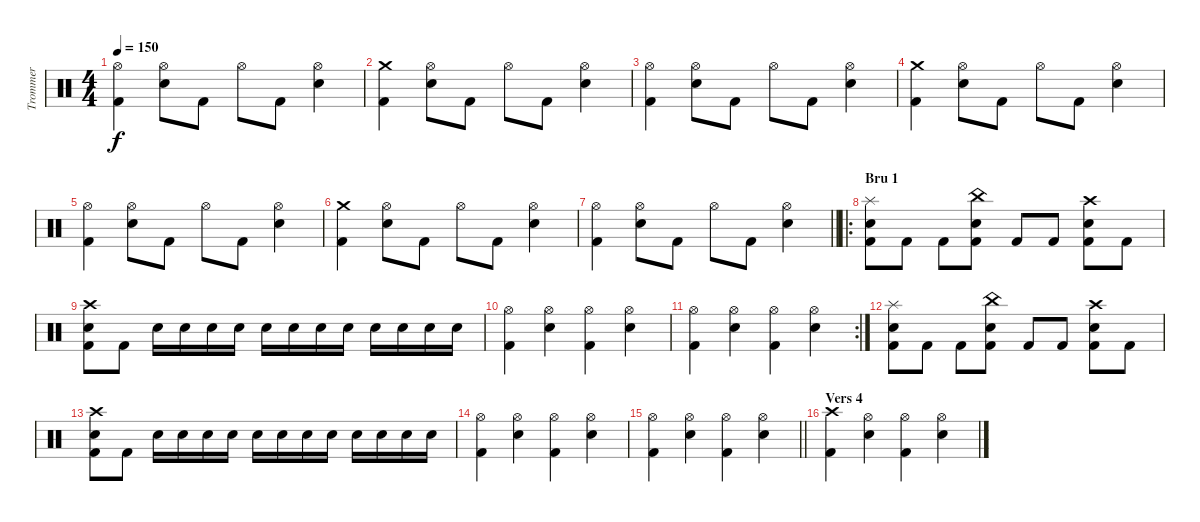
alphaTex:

\track ("Trommer" "Trommer") {instrument percussion}
\staff {score}
\articulation defaults
\ts (4 4)
\tempo 150
\clef neutral
\ks c
("Hi-Hat (open)" "Kick (hit) 2").4{dy f} ("Hi-Hat (open)" "Snare (hit) 2").8 "Kick (hit) 2".8 "Hi-Hat (open)".8 "Kick (hit) 2".8 ("Hi-Hat (open)" "Snare (hit) 2").4 |
("Crash medium (hit)" "Kick (hit) 2").4 ("Hi-Hat (open)" "Snare (hit) 2").8 "Kick (hit) 2".8 "Hi-Hat (open)".8 "Kick (hit) 2".8 ("Hi-Hat (open)" "Snare (hit) 2").4 |
("Hi-Hat (open)" "Kick (hit) 2").4 ("Hi-Hat (open)" "Snare (hit) 2").8 "Kick (hit) 2".8 "Hi-Hat (open)".8 "Kick (hit) 2".8 ("Hi-Hat (open)" "Snare (hit) 2").4 |
("Crash medium (hit)" "Kick (hit) 2").4 ("Hi-Hat (open)" "Snare (hit) 2").8 "Kick (hit) 2".8 "Hi-Hat (open)".8 "Kick (hit) 2".8 ("Hi-Hat (open)" "Snare (hit) 2").4 |
("Hi-Hat (open)" "Kick (hit) 2").4 ("Hi-Hat (open)" "Snare (hit) 2").8 "Kick (hit) 2".8 "Hi-Hat (open)".8 "Kick (hit) 2".8 ("Hi-Hat (open)" "Snare (hit) 2").4 |
("Crash medium (hit)" "Kick (hit) 2").4 ("Hi-Hat (open)" "Snare (hit) 2").8 "Kick (hit) 2".8 "Hi-Hat (open)".8 "Kick (hit) 2".8 ("Hi-Hat (open)" "Snare (hit) 2").4 |
\barLineRight lightlight
("Hi-Hat (open)" "Kick (hit) 2").4 ("Hi-Hat (open)" "Snare (hit) 2").8 "Kick (hit) 2".8 "Hi-Hat (open)".8 "Kick (hit) 2".8 ("Hi-Hat (open)" "Snare (hit) 2").4 |
\ro
\section ("" "Bru 1")
("Splash (hit)" "Snare (hit) 2" "Kick (hit) 2").8 "Kick (hit) 2".8 "Kick (hit) 2".8 ("China (hit)" "Snare (hit) 2" "Kick (hit) 2").8 "Kick (hit) 2".8 "Kick (hit) 2".8 ("Crash high (hit)" "Snare (hit) 2" "Kick (hit) 2").8 "Kick (hit) 2".8 |
("Crash high (hit)" "Snare (hit) 2" "Kick (hit) 2").8 "Kick (hit) 2".8 "Snare (hit) 2".16 "Snare (hit) 2".16 "Snare (hit) 2".16 "Snare (hit) 2".16 "Snare (hit) 2".16 "Snare (hit) 2".16 "Snare (hit) 2".16 "Snare (hit) 2".16 "Snare (hit) 2".16 "Snare (hit) 2".16 "Snare (hit) 2".16 "Snare (hit) 2".16 |
("Hi-Hat (open)" "Kick (hit) 2").4 ("Hi-Hat (open)" "Snare (hit) 2").4 ("Hi-Hat (open)" "Kick (hit) 2").4 ("Hi-Hat (open)" "Snare (hit) 2").4 |
\rc 2
("Hi-Hat (open)" "Kick (hit) 2").4 ("Hi-Hat (open)" "Snare (hit) 2").4 ("Hi-Hat (open)" "Kick (hit) 2").4 ("Hi-Hat (open)" "Snare (hit) 2").4 |
("Splash (hit)" "Snare (hit) 2" "Kick (hit) 2").8 "Kick (hit) 2".8 "Kick (hit) 2".8 ("China (hit)" "Snare (hit) 2" "Kick (hit) 2").8 "Kick (hit) 2".8 "Kick (hit) 2".8 ("Crash high (hit)" "Snare (hit) 2" "Kick (hit) 2").8 "Kick (hit) 2".8 |
("Crash high (hit)" "Snare (hit) 2" "Kick (hit) 2").8 "Kick (hit) 2".8 "Snare (hit) 2".16 "Snare (hit) 2".16 "Snare (hit) 2".16 "Snare (hit) 2".16 "Snare (hit) 2".16 "Snare (hit) 2".16 "Snare (hit) 2".16 "Snare (hit) 2".16 "Snare (hit) 2".16 "Snare (hit) 2".16 "Snare (hit) 2".16 "Snare (hit) 2".16 |
("Hi-Hat (open)" "Kick (hit) 2").4 ("Hi-Hat (open)" "Snare (hit) 2").4 ("Hi-Hat (open)" "Kick (hit) 2").4 ("Hi-Hat (open)" "Snare (hit) 2").4 |
\barLineRight lightlight
("Hi-Hat (open)" "Kick (hit) 2").4 ("Hi-Hat (open)" "Snare (hit) 2").4 ("Hi-Hat (open)" "Kick (hit) 2").4 ("Hi-Hat (open)" "Snare (hit) 2").4 |
\section ("" "Vers 4")
("Crash high (hit)" "Kick (hit) 2").4 ("Hi-Hat (open)" "Snare (hit) 2").4 ("Hi-Hat (open)" "Kick (hit) 2").4 ("Hi-Hat (open)" "Snare (hit) 2").4
